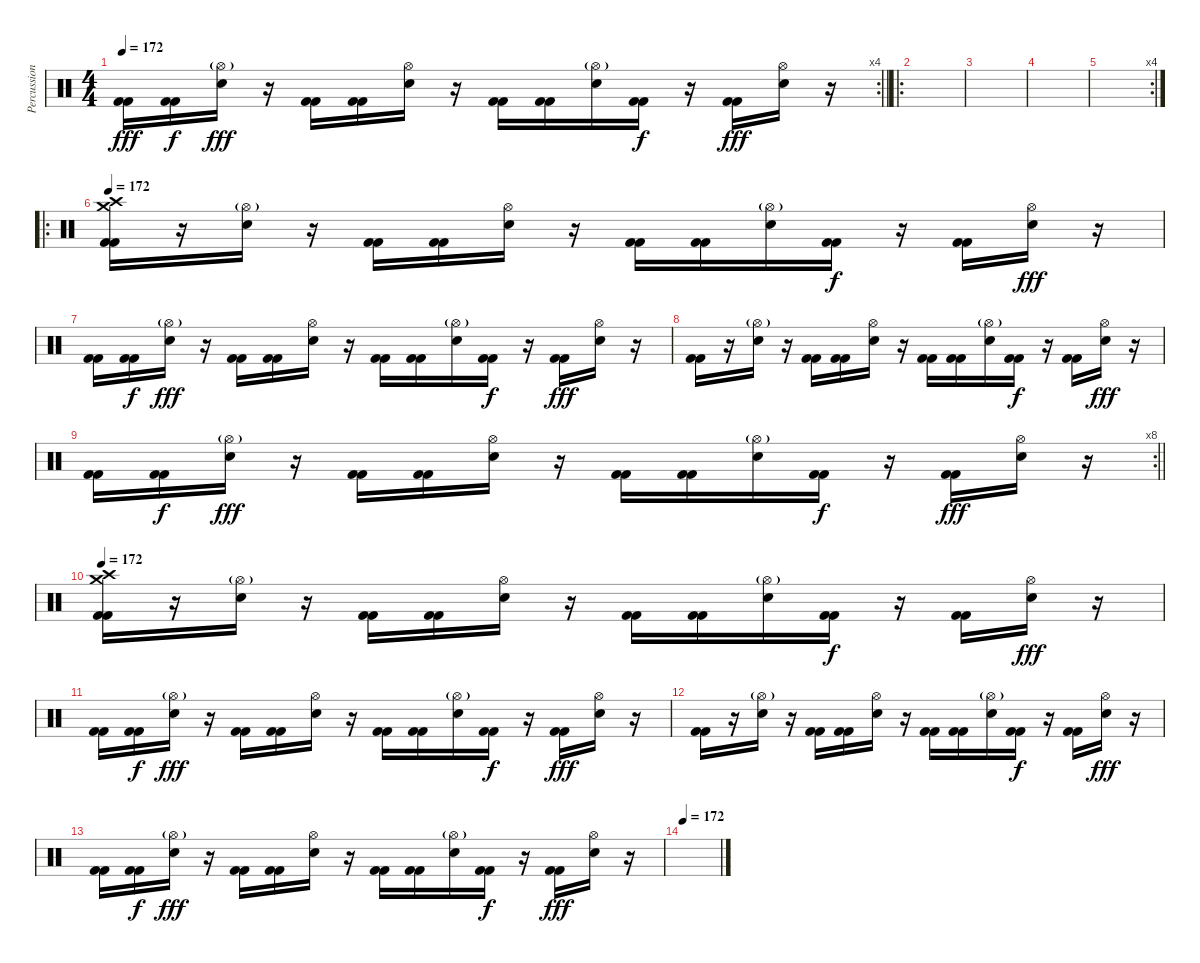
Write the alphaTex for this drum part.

\track ("Percussion" "Percussion") {instrument percussion}
\staff {score}
\articulation defaults
\rc 4
\ts (4 4)
\tempo 172
\clef neutral
\barLineRight lightlight
\ks c
("Kick (hit) 2" "Kick (hit) 2").16{dy fff} ("Kick (hit) 2" "Kick (hit) 2").16{dy f} ("Hi-Hat (open)"{g} "Electric Snare (hit)").16{dy fff} r.16 ("Kick (hit) 2" "Kick (hit) 2").16 ("Kick (hit) 2" "Kick (hit) 2").16 ("Hi-Hat (open)" "Electric Snare (hit)").16 r.16 ("Kick (hit) 2" "Kick (hit) 2").16 ("Kick (hit) 2" "Kick (hit) 2").16 ("Hi-Hat (open)"{g} "Electric Snare (hit)").16 ("Kick (hit) 2" "Kick (hit) 2").16{dy f} r.16 ("Kick (hit) 2" "Kick (hit) 2").16{dy fff} ("Hi-Hat (open)" "Electric Snare (hit)").16 r.16 |
\ro
|
|
|
\rc 4
|
\ro
\tempo 172
("Crash medium (hit)" "Crash high (hit)" "Kick (hit) 2" "Kick (hit) 2").16 r.16 ("Hi-Hat (open)"{g} "Electric Snare (hit)").16 r.16 ("Kick (hit) 2" "Kick (hit) 2").16 ("Kick (hit) 2" "Kick (hit) 2").16 ("Hi-Hat (open)" "Electric Snare (hit)").16 r.16 ("Kick (hit) 2" "Kick (hit) 2").16 ("Kick (hit) 2" "Kick (hit) 2").16 ("Hi-Hat (open)"{g} "Electric Snare (hit)").16 ("Kick (hit) 2" "Kick (hit) 2").16{dy f} r.16 ("Kick (hit) 2" "Kick (hit) 2").16 ("Hi-Hat (open)" "Electric Snare (hit)").16{dy fff} r.16 |
("Kick (hit) 2" "Kick (hit) 2").16 ("Kick (hit) 2" "Kick (hit) 2").16{dy f} ("Hi-Hat (open)"{g} "Electric Snare (hit)").16{dy fff} r.16 ("Kick (hit) 2" "Kick (hit) 2").16 ("Kick (hit) 2" "Kick (hit) 2").16 ("Hi-Hat (open)" "Electric Snare (hit)").16 r.16 ("Kick (hit) 2" "Kick (hit) 2").16 ("Kick (hit) 2" "Kick (hit) 2").16 ("Hi-Hat (open)"{g} "Electric Snare (hit)").16 ("Kick (hit) 2" "Kick (hit) 2").16{dy f} r.16 ("Kick (hit) 2" "Kick (hit) 2").16{dy fff} ("Hi-Hat (open)" "Electric Snare (hit)").16 r.16 |
("Kick (hit) 2" "Kick (hit) 2").16 r.16 ("Hi-Hat (open)"{g} "Electric Snare (hit)").16 r.16 ("Kick (hit) 2" "Kick (hit) 2").16 ("Kick (hit) 2" "Kick (hit) 2").16 ("Hi-Hat (open)" "Electric Snare (hit)").16 r.16 ("Kick (hit) 2" "Kick (hit) 2").16 ("Kick (hit) 2" "Kick (hit) 2").16 ("Hi-Hat (open)"{g} "Electric Snare (hit)").16 ("Kick (hit) 2" "Kick (hit) 2").16{dy f} r.16 ("Kick (hit) 2" "Kick (hit) 2").16 ("Hi-Hat (open)" "Electric Snare (hit)").16{dy fff} r.16 |
\rc 8
\barLineRight lightlight
("Kick (hit) 2" "Kick (hit) 2").16 ("Kick (hit) 2" "Kick (hit) 2").16{dy f} ("Hi-Hat (open)"{g} "Electric Snare (hit)").16{dy fff} r.16 ("Kick (hit) 2" "Kick (hit) 2").16 ("Kick (hit) 2" "Kick (hit) 2").16 ("Hi-Hat (open)" "Electric Snare (hit)").16 r.16 ("Kick (hit) 2" "Kick (hit) 2").16 ("Kick (hit) 2" "Kick (hit) 2").16 ("Hi-Hat (open)"{g} "Electric Snare (hit)").16 ("Kick (hit) 2" "Kick (hit) 2").16{dy f} r.16 ("Kick (hit) 2" "Kick (hit) 2").16{dy fff} ("Hi-Hat (open)" "Electric Snare (hit)").16 r.16 |
\tempo 172
("Crash medium (hit)" "Crash high (hit)" "Kick (hit) 2" "Kick (hit) 2").16 r.16 ("Hi-Hat (open)"{g} "Electric Snare (hit)").16 r.16 ("Kick (hit) 2" "Kick (hit) 2").16 ("Kick (hit) 2" "Kick (hit) 2").16 ("Hi-Hat (open)" "Electric Snare (hit)").16 r.16 ("Kick (hit) 2" "Kick (hit) 2").16 ("Kick (hit) 2" "Kick (hit) 2").16 ("Hi-Hat (open)"{g} "Electric Snare (hit)").16 ("Kick (hit) 2" "Kick (hit) 2").16{dy f} r.16 ("Kick (hit) 2" "Kick (hit) 2").16 ("Hi-Hat (open)" "Electric Snare (hit)").16{dy fff} r.16 |
("Kick (hit) 2" "Kick (hit) 2").16 ("Kick (hit) 2" "Kick (hit) 2").16{dy f} ("Hi-Hat (open)"{g} "Electric Snare (hit)").16{dy fff} r.16 ("Kick (hit) 2" "Kick (hit) 2").16 ("Kick (hit) 2" "Kick (hit) 2").16 ("Hi-Hat (open)" "Electric Snare (hit)").16 r.16 ("Kick (hit) 2" "Kick (hit) 2").16 ("Kick (hit) 2" "Kick (hit) 2").16 ("Hi-Hat (open)"{g} "Electric Snare (hit)").16 ("Kick (hit) 2" "Kick (hit) 2").16{dy f} r.16 ("Kick (hit) 2" "Kick (hit) 2").16{dy fff} ("Hi-Hat (open)" "Electric Snare (hit)").16 r.16 |
("Kick (hit) 2" "Kick (hit) 2").16 r.16 ("Hi-Hat (open)"{g} "Electric Snare (hit)").16 r.16 ("Kick (hit) 2" "Kick (hit) 2").16 ("Kick (hit) 2" "Kick (hit) 2").16 ("Hi-Hat (open)" "Electric Snare (hit)").16 r.16 ("Kick (hit) 2" "Kick (hit) 2").16 ("Kick (hit) 2" "Kick (hit) 2").16 ("Hi-Hat (open)"{g} "Electric Snare (hit)").16 ("Kick (hit) 2" "Kick (hit) 2").16{dy f} r.16 ("Kick (hit) 2" "Kick (hit) 2").16 ("Hi-Hat (open)" "Electric Snare (hit)").16{dy fff} r.16 |
("Kick (hit) 2" "Kick (hit) 2").16 ("Kick (hit) 2" "Kick (hit) 2").16{dy f} ("Hi-Hat (open)"{g} "Electric Snare (hit)").16{dy fff} r.16 ("Kick (hit) 2" "Kick (hit) 2").16 ("Kick (hit) 2" "Kick (hit) 2").16 ("Hi-Hat (open)" "Electric Snare (hit)").16 r.16 ("Kick (hit) 2" "Kick (hit) 2").16 ("Kick (hit) 2" "Kick (hit) 2").16 ("Hi-Hat (open)"{g} "Electric Snare (hit)").16 ("Kick (hit) 2" "Kick (hit) 2").16{dy f} r.16 ("Kick (hit) 2" "Kick (hit) 2").16{dy fff} ("Hi-Hat (open)" "Electric Snare (hit)").16 r.16 |
\tempo 172
